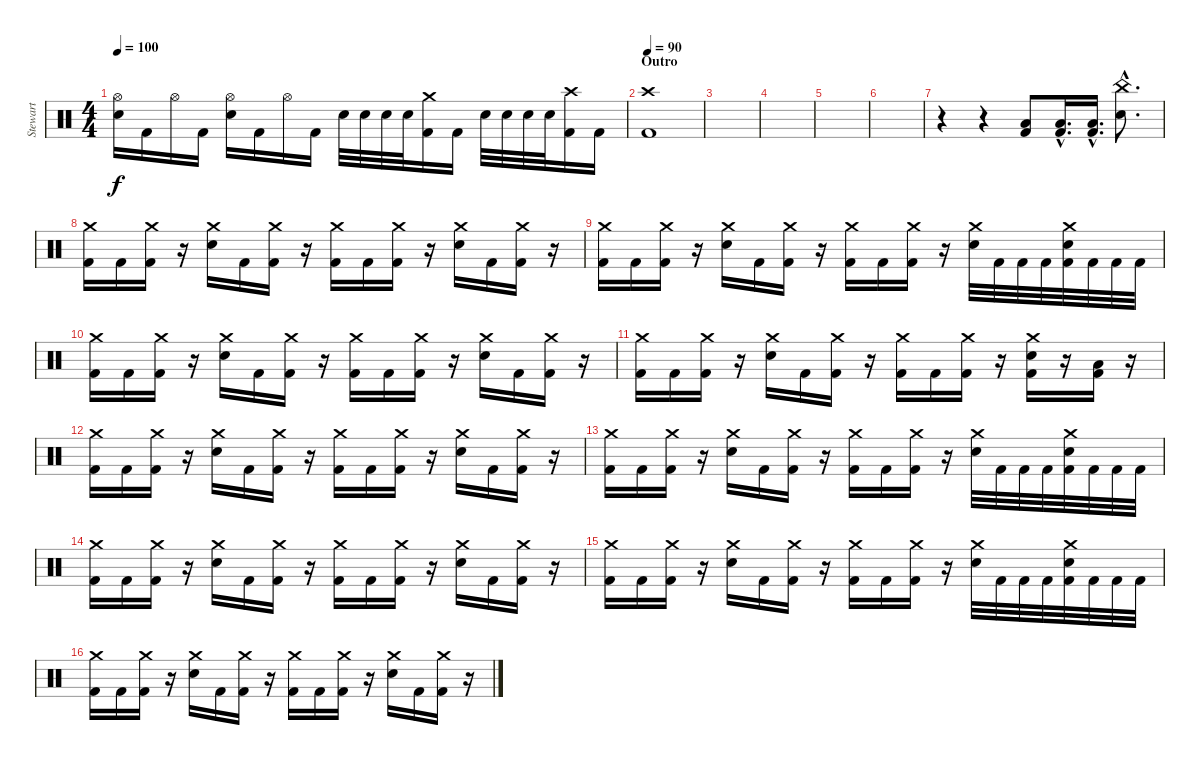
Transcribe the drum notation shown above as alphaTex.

\track ("Stewart" "Stewart") {instrument percussion}
\staff {score}
\articulation defaults
\ts (4 4)
\tempo 100
\clef neutral
\ks c
("Hi-Hat (open)" "Snare (hit) 2").16{dy f} "Kick (hit) 2".16 "Hi-Hat (open)".16 "Kick (hit) 2".16 ("Hi-Hat (open)" "Snare (hit) 2").16 "Kick (hit) 2".16 "Hi-Hat (open)".16 "Kick (hit) 2".16 "Snare (hit) 2".32 "Snare (hit) 2".32 "Snare (hit) 2".32 "Snare (hit) 2".32 ("Crash medium (hit)" "Kick (hit) 2").16 "Kick (hit) 2".16 "Snare (hit) 2".32 "Snare (hit) 2".32 "Snare (hit) 2".32 "Snare (hit) 2".32 ("Crash high (hit)" "Kick (hit) 2").16 "Kick (hit) 2".16 |
\section ("" "Outro")
\tempo 90
("Crash high (hit)" "Kick (hit) 2").1 |
|
|
|
|
r.4 r.4 ("Low Floor Tom (hit)" "Kick (hit) 2").8 ("Low Floor Tom (hit)"{hac} "Kick (hit) 2"{hac}).16{d} ("Low Floor Tom (hit)"{hac} "Kick (hit) 2"{hac}).16{d} ("China (hit)"{hac} "Electric Snare (hit)"{hac}).8{d} |
("Crash medium (hit)" "Kick (hit) 2").16 "Kick (hit) 2".16 ("Crash medium (hit)" "Kick (hit) 2").16 r.16 ("Crash medium (hit)" "Snare (hit) 2").16 "Kick (hit) 2".16 ("Crash medium (hit)" "Kick (hit) 2").16 r.16 ("Crash medium (hit)" "Kick (hit) 2").16 "Kick (hit) 2".16 ("Crash medium (hit)" "Kick (hit) 2").16 r.16 ("Crash medium (hit)" "Snare (hit) 2").16 "Kick (hit) 2".16 ("Crash medium (hit)" "Kick (hit) 2").16 r.16 |
("Crash medium (hit)" "Kick (hit) 2").16 "Kick (hit) 2".16 ("Crash medium (hit)" "Kick (hit) 2").16 r.16 ("Crash medium (hit)" "Snare (hit) 2").16 "Kick (hit) 2".16 ("Crash medium (hit)" "Kick (hit) 2").16 r.16 ("Crash medium (hit)" "Kick (hit) 2").16 "Kick (hit) 2".16 ("Crash medium (hit)" "Kick (hit) 2").16 r.16 ("Crash medium (hit)" "Snare (hit) 2").32 "Kick (hit) 2".32 "Kick (hit) 2".32 "Kick (hit) 2".32 ("Crash medium (hit)" "Snare (hit) 2" "Kick (hit) 2").32 "Kick (hit) 2".32 "Kick (hit) 2".32 "Kick (hit) 2".32 |
("Crash medium (hit)" "Kick (hit) 2").16 "Kick (hit) 2".16 ("Crash medium (hit)" "Kick (hit) 2").16 r.16 ("Crash medium (hit)" "Snare (hit) 2").16 "Kick (hit) 2".16 ("Crash medium (hit)" "Kick (hit) 2").16 r.16 ("Crash medium (hit)" "Kick (hit) 2").16 "Kick (hit) 2".16 ("Crash medium (hit)" "Kick (hit) 2").16 r.16 ("Crash medium (hit)" "Snare (hit) 2").16 "Kick (hit) 2".16 ("Crash medium (hit)" "Kick (hit) 2").16 r.16 |
("Crash medium (hit)" "Kick (hit) 2").16 "Kick (hit) 2".16 ("Crash medium (hit)" "Kick (hit) 2").16 r.16 ("Crash medium (hit)" "Snare (hit) 2").16 "Kick (hit) 2".16 ("Crash medium (hit)" "Kick (hit) 2").16 r.16 ("Crash medium (hit)" "Kick (hit) 2").16 "Kick (hit) 2".16 ("Crash medium (hit)" "Kick (hit) 2").16 r.16 ("Crash medium (hit)" "Snare (hit) 2" "Kick (hit) 2").16 r.16 ("Low Floor Tom (hit)" "Kick (hit) 2").16 r.16 |
("Crash medium (hit)" "Kick (hit) 2").16 "Kick (hit) 2".16 ("Crash medium (hit)" "Kick (hit) 2").16 r.16 ("Crash medium (hit)" "Snare (hit) 2").16 "Kick (hit) 2".16 ("Crash medium (hit)" "Kick (hit) 2").16 r.16 ("Crash medium (hit)" "Kick (hit) 2").16 "Kick (hit) 2".16 ("Crash medium (hit)" "Kick (hit) 2").16 r.16 ("Crash medium (hit)" "Snare (hit) 2").16 "Kick (hit) 2".16 ("Crash medium (hit)" "Kick (hit) 2").16 r.16 |
("Crash medium (hit)" "Kick (hit) 2").16 "Kick (hit) 2".16 ("Crash medium (hit)" "Kick (hit) 2").16 r.16 ("Crash medium (hit)" "Snare (hit) 2").16 "Kick (hit) 2".16 ("Crash medium (hit)" "Kick (hit) 2").16 r.16 ("Crash medium (hit)" "Kick (hit) 2").16 "Kick (hit) 2".16 ("Crash medium (hit)" "Kick (hit) 2").16 r.16 ("Crash medium (hit)" "Snare (hit) 2").32 "Kick (hit) 2".32 "Kick (hit) 2".32 "Kick (hit) 2".32 ("Crash medium (hit)" "Snare (hit) 2" "Kick (hit) 2").32 "Kick (hit) 2".32 "Kick (hit) 2".32 "Kick (hit) 2".32 |
("Crash medium (hit)" "Kick (hit) 2").16 "Kick (hit) 2".16 ("Crash medium (hit)" "Kick (hit) 2").16 r.16 ("Crash medium (hit)" "Snare (hit) 2").16 "Kick (hit) 2".16 ("Crash medium (hit)" "Kick (hit) 2").16 r.16 ("Crash medium (hit)" "Kick (hit) 2").16 "Kick (hit) 2".16 ("Crash medium (hit)" "Kick (hit) 2").16 r.16 ("Crash medium (hit)" "Snare (hit) 2").16 "Kick (hit) 2".16 ("Crash medium (hit)" "Kick (hit) 2").16 r.16 |
("Crash medium (hit)" "Kick (hit) 2").16 "Kick (hit) 2".16 ("Crash medium (hit)" "Kick (hit) 2").16 r.16 ("Crash medium (hit)" "Snare (hit) 2").16 "Kick (hit) 2".16 ("Crash medium (hit)" "Kick (hit) 2").16 r.16 ("Crash medium (hit)" "Kick (hit) 2").16 "Kick (hit) 2".16 ("Crash medium (hit)" "Kick (hit) 2").16 r.16 ("Crash medium (hit)" "Snare (hit) 2").32 "Kick (hit) 2".32 "Kick (hit) 2".32 "Kick (hit) 2".32 ("Crash medium (hit)" "Snare (hit) 2" "Kick (hit) 2").32 "Kick (hit) 2".32 "Kick (hit) 2".32 "Kick (hit) 2".32 |
("Crash medium (hit)" "Kick (hit) 2").16 "Kick (hit) 2".16 ("Crash medium (hit)" "Kick (hit) 2").16 r.16 ("Crash medium (hit)" "Snare (hit) 2").16 "Kick (hit) 2".16 ("Crash medium (hit)" "Kick (hit) 2").16 r.16 ("Crash medium (hit)" "Kick (hit) 2").16 "Kick (hit) 2".16 ("Crash medium (hit)" "Kick (hit) 2").16 r.16 ("Crash medium (hit)" "Snare (hit) 2").16 "Kick (hit) 2".16 ("Crash medium (hit)" "Kick (hit) 2").16 r.16
